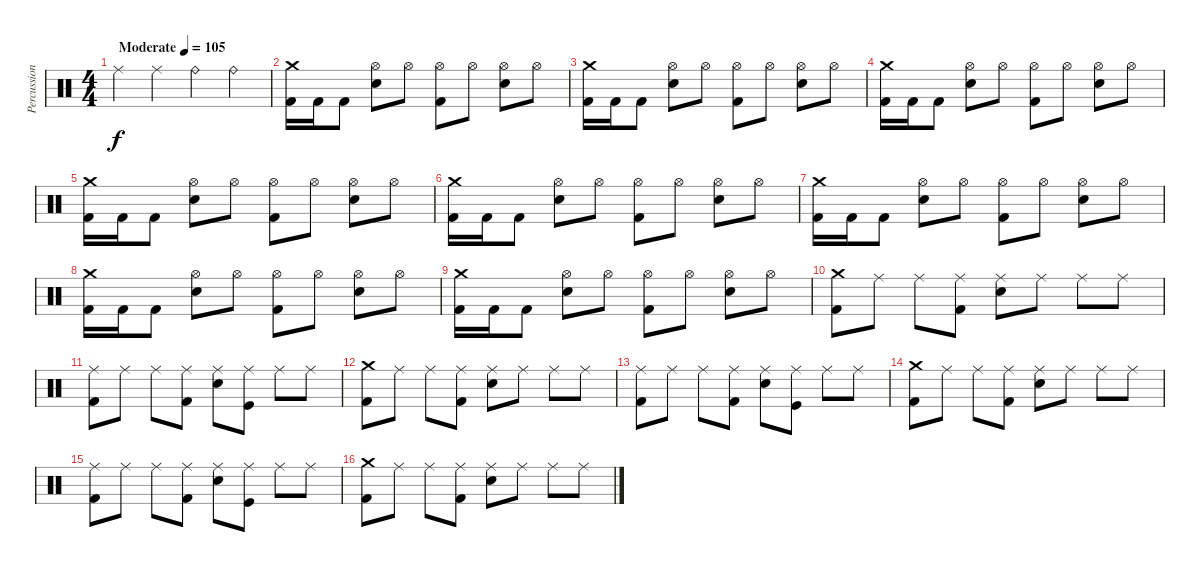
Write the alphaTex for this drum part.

\track ("Percussion" "Percussion") {instrument percussion}
\staff {score}
\articulation defaults
\ts (4 4)
\tempo (105 "Moderate")
\clef neutral
\ks c "Ride (middle)".4{dy f} "Ride (middle)".4 "Ride (bell)".4 "Ride (bell)".4
|
("Crash medium (hit)" "Kick (hit) 2").16 "Kick (hit) 2".16 "Kick (hit) 2".8 ("Hi-Hat (open)" "Electric Snare (hit)").8 "Hi-Hat (open)".8 ("Hi-Hat (open)" "Kick (hit) 2").8 "Hi-Hat (open)".8 ("Hi-Hat (open)" "Electric Snare (hit)").8 "Hi-Hat (open)".8 |
("Crash medium (hit)" "Kick (hit) 2").16 "Kick (hit) 2".16 "Kick (hit) 2".8 ("Hi-Hat (open)" "Electric Snare (hit)").8 "Hi-Hat (open)".8 ("Hi-Hat (open)" "Kick (hit) 2").8 "Hi-Hat (open)".8 ("Hi-Hat (open)" "Electric Snare (hit)").8 "Hi-Hat (open)".8 |
("Crash medium (hit)" "Kick (hit) 2").16 "Kick (hit) 2".16 "Kick (hit) 2".8 ("Hi-Hat (open)" "Electric Snare (hit)").8 "Hi-Hat (open)".8 ("Hi-Hat (open)" "Kick (hit) 2").8 "Hi-Hat (open)".8 ("Hi-Hat (open)" "Electric Snare (hit)").8 "Hi-Hat (open)".8 |
("Crash medium (hit)" "Kick (hit) 2").16 "Kick (hit) 2".16 "Kick (hit) 2".8 ("Hi-Hat (open)" "Electric Snare (hit)").8 "Hi-Hat (open)".8 ("Hi-Hat (open)" "Kick (hit) 2").8 "Hi-Hat (open)".8 ("Hi-Hat (open)" "Electric Snare (hit)").8 "Hi-Hat (open)".8 |
("Crash medium (hit)" "Kick (hit) 2").16 "Kick (hit) 2".16 "Kick (hit) 2".8 ("Hi-Hat (open)" "Electric Snare (hit)").8 "Hi-Hat (open)".8 ("Hi-Hat (open)" "Kick (hit) 2").8 "Hi-Hat (open)".8 ("Hi-Hat (open)" "Electric Snare (hit)").8 "Hi-Hat (open)".8 |
("Crash medium (hit)" "Kick (hit) 2").16 "Kick (hit) 2".16 "Kick (hit) 2".8 ("Hi-Hat (open)" "Electric Snare (hit)").8 "Hi-Hat (open)".8 ("Hi-Hat (open)" "Kick (hit) 2").8 "Hi-Hat (open)".8 ("Hi-Hat (open)" "Electric Snare (hit)").8 "Hi-Hat (open)".8 |
("Crash medium (hit)" "Kick (hit) 2").16 "Kick (hit) 2".16 "Kick (hit) 2".8 ("Hi-Hat (open)" "Electric Snare (hit)").8 "Hi-Hat (open)".8 ("Hi-Hat (open)" "Kick (hit) 2").8 "Hi-Hat (open)".8 ("Hi-Hat (open)" "Electric Snare (hit)").8 "Hi-Hat (open)".8 |
("Crash medium (hit)" "Kick (hit) 2").16 "Kick (hit) 2".16 "Kick (hit) 2".8 ("Hi-Hat (open)" "Electric Snare (hit)").8 "Hi-Hat (open)".8 ("Hi-Hat (open)" "Kick (hit) 2").8 "Hi-Hat (open)".8 ("Hi-Hat (open)" "Electric Snare (hit)").8 "Hi-Hat (open)".8 |
("Crash medium (hit)" "Kick (hit) 2").8 "Ride (middle)".8 "Ride (middle)".8 ("Ride (middle)" "Kick (hit) 2").8 ("Ride (middle)" "Electric Snare (hit)").8 "Ride (middle)".8 "Ride (middle)".8 "Ride (middle)".8 |
("Ride (middle)" "Kick (hit) 2").8 "Ride (middle)".8 "Ride (middle)".8 ("Ride (middle)" "Kick (hit) 2").8 ("Ride (middle)" "Electric Snare (hit)").8 ("Ride (middle)" "Kick (hit)").8 "Ride (middle)".8 "Ride (middle)".8 |
("Crash medium (hit)" "Kick (hit) 2").8 "Ride (middle)".8 "Ride (middle)".8 ("Ride (middle)" "Kick (hit) 2").8 ("Ride (middle)" "Electric Snare (hit)").8 "Ride (middle)".8 "Ride (middle)".8 "Ride (middle)".8 |
("Ride (middle)" "Kick (hit) 2").8 "Ride (middle)".8 "Ride (middle)".8 ("Ride (middle)" "Kick (hit) 2").8 ("Ride (middle)" "Electric Snare (hit)").8 ("Ride (middle)" "Kick (hit)").8 "Ride (middle)".8 "Ride (middle)".8 |
("Crash medium (hit)" "Kick (hit) 2").8 "Ride (middle)".8 "Ride (middle)".8 ("Ride (middle)" "Kick (hit) 2").8 ("Ride (middle)" "Electric Snare (hit)").8 "Ride (middle)".8 "Ride (middle)".8 "Ride (middle)".8 |
("Ride (middle)" "Kick (hit) 2").8 "Ride (middle)".8 "Ride (middle)".8 ("Ride (middle)" "Kick (hit) 2").8 ("Ride (middle)" "Electric Snare (hit)").8 ("Ride (middle)" "Kick (hit)").8 "Ride (middle)".8 "Ride (middle)".8 |
("Crash medium (hit)" "Kick (hit) 2").8 "Ride (middle)".8 "Ride (middle)".8 ("Ride (middle)" "Kick (hit) 2").8 ("Ride (middle)" "Electric Snare (hit)").8 "Ride (middle)".8 "Ride (middle)".8 "Ride (middle)".8
